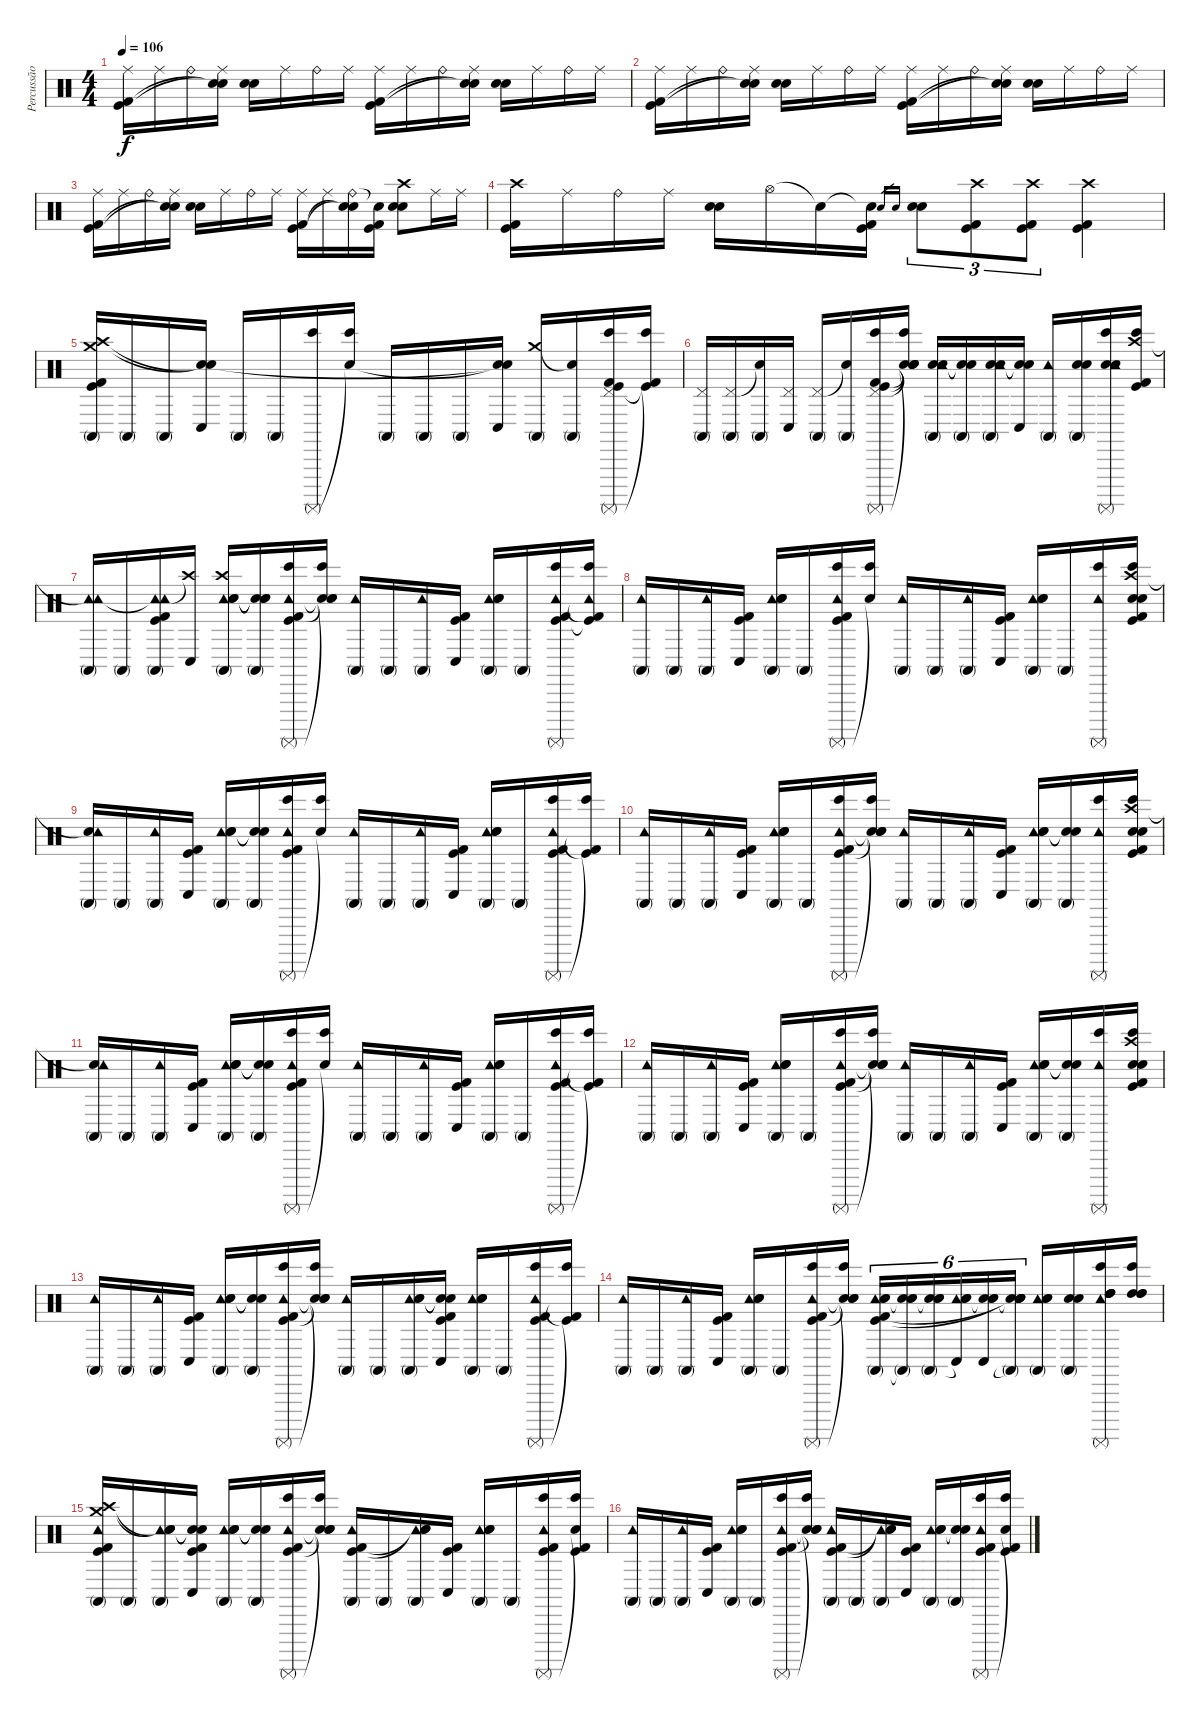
\track ("Percussão" "Percussão") {instrument percussion}
\staff {score}
\articulation defaults
\ts (4 4)
\tempo 106
\clef neutral
\ks c
("Ride (middle)" "Kick (hit)" "Kick (hit) 2").16{dy f} "Ride (middle)".16 "Ride (bell)".16 ("Ride (middle)" "Snare (hit)"{t} "Snare (hit)"{t}).16 ("Electric Snare (hit)" "Snare (hit) 2").16 "Ride (middle)".16 "Ride (bell)".16 "Ride (middle)".16 ("Ride (middle)" "Kick (hit)" "Kick (hit) 2").16 "Ride (middle)".16 "Ride (bell)".16 ("Ride (middle)" "Snare (hit)"{t} "Snare (hit)"{t}).16 ("Electric Snare (hit)" "Snare (hit) 2").16 "Ride (middle)".16 "Ride (bell)".16 "Ride (middle)".16 |
("Ride (middle)" "Kick (hit)" "Kick (hit) 2").16 "Ride (middle)".16 "Ride (bell)".16 ("Ride (middle)" "Snare (hit)"{t} "Snare (hit)"{t}).16 ("Electric Snare (hit)" "Snare (hit) 2").16 "Ride (middle)".16 "Ride (bell)".16 "Ride (middle)".16 ("Ride (middle)" "Kick (hit)" "Kick (hit) 2").16 "Ride (middle)".16 "Ride (bell)".16 ("Ride (middle)" "Snare (hit)"{t} "Snare (hit)"{t}).16 ("Electric Snare (hit)" "Snare (hit) 2").16 "Ride (middle)".16 "Ride (bell)".16 "Ride (middle)".16 |
("Ride (middle)" "Kick (hit) 2" "Kick (hit)").16 "Ride (middle)".16 "Ride (bell)".16 ("Ride (middle)" "Snare (hit)"{t} "Snare (hit)"{t}).16 ("Electric Snare (hit)" "Snare (hit) 2").16 "Ride (middle)".16 "Ride (bell)".16 "Ride (middle)".16 ("Ride (middle)" "Kick (hit) 2" "Kick (hit)").16 "Ride (middle)".16 ("Ride (bell)" "Snare (hit)"{t} "Snare (hit)"{t}).16 ("Snare (hit)"{t} "Kick (hit)" "Kick (hit) 2").16 ("Crash high (hit)" "Electric Snare (hit)" "Snare (hit) 2").8 "Ride (middle)".16 "Ride (middle)".16 |
("Crash high (hit)" "Kick (hit) 2" "Kick (hit)").16 "Ride (middle)".16 "Ride (bell)".16 "Ride (middle)".16 ("Electric Snare (hit)" "Snare (hit) 2").16 "Hi-Hat (open)".16 "Snare (hit)"{t}.16 ("Snare (hit)"{t} "Kick (hit)" "Kick (hit) 2").16 "Electric Snare (hit)".16{gr} "Snare (hit) 2".16{gr} ("Electric Snare (hit)" "Snare (hit) 2").8{tu (3 2)} ("Crash high (hit)" "Kick (hit)" "Kick (hit) 2").8{tu (3 2)} ("Crash high (hit)" "Kick (hit)" "Kick (hit) 2").8{tu (3 2)} ("Crash high (hit)" "Kick (hit)" "Kick (hit) 2").4 |
("Conga high (mute)" "Crash medium (hit)" "Crash high (hit)" "Kick (hit)" "Kick (hit) 2").16 "Conga high (mute)".16 "Conga high (mute)".16 ("Conga low (hit)" "Snare (hit)"{t} "Snare (hit)"{t}).16 "Conga high (mute)".16 "Conga high (mute)".16 ("Bongo High (hit)" "Surdo (mute)").16 ("Bongo High (hit)" "Snare (hit)"{t}).16 "Conga high (mute)".16 "Conga high (mute)".16 "Conga high (mute)".16 ("Conga low (hit)" "Snare (hit)"{t} "Snare (hit)"{t}).16 ("Conga high (mute)" "Crash medium (hit)").16 ("Conga high (mute)" "Snare (hit)"{t}).16 ("Bongo High (hit)" "Surdo (mute)" "Pedal Hi-Hat (hit)" "Kick (hit)" "Kick (hit) 2").16 ("Bongo High (hit)" "Kick (hit) 2"{t} "Kick (hit)"{t}).16 |
("Conga high (mute)" "Pedal Hi-Hat (hit)").16 ("Conga high (mute)" "Pedal Hi-Hat (hit)").16 ("Conga high (mute)" "Snare (hit)"{t}).16 ("Conga low (hit)" "Pedal Hi-Hat (hit)").16 ("Conga high (mute)" "Pedal Hi-Hat (hit)").16 ("Conga high (mute)" "Snare (hit)"{t}).16 ("Bongo High (hit)" "Surdo (mute)" "Pedal Hi-Hat (hit)" "Kick (hit) 2" "Kick (hit)").16 ("Bongo High (hit)" "Snare (hit)"{t} "Snare (hit)"{t} "Snare (hit)"{t} "Snare (hit)"{t}).16 ("Conga high (mute)" "Electric Snare (hit)" "Snare (hit) 2" "Tambourine (hit)").16 ("Conga high (mute)" "Snare (hit)"{t} "Snare (hit)"{t}).16 ("Conga high (mute)" "Electric Snare (hit)" "Snare (hit) 2" "Tambourine (hit)").16 ("Conga low (hit)" "Snare (hit)"{t} "Snare (hit)"{t}).16 ("Conga high (mute)" "Tambourine (hit)").16 ("Conga high (mute)" "Electric Snare (hit)" "Snare (hit) 2").16 ("Bongo High (hit)" "Surdo (mute)" "Snare (hit) 2" "Electric Snare (hit)" "Tambourine (hit)").16 ("Bongo High (hit)" "Crash high (hit)" "Kick (hit)" "Kick (hit) 2").16 |
("Conga high (mute)" "Tambourine (hit)"{t} "Tambourine (hit)").16 "Conga high (mute)".16 ("Conga high (mute)" "Tambourine (hit)"{t} "Tambourine (hit)" "Kick (hit)" "Kick (hit) 2").16 ("Conga low (hit)" "Crash high (hit)"{t}).16 ("Conga high (mute)" "Tambourine (hit)" "Electric Snare (hit)" "Snare (hit) 2" "Crash high (hit)").16 ("Conga high (mute)" "Snare (hit)"{t} "Snare (hit)"{t} "Snare (hit)"{t}).16 ("Bongo High (hit)" "Surdo (mute)" "Tambourine (hit)" "Kick (hit) 2" "Kick (hit)").16 ("Bongo High (hit)" "Snare (hit)"{t} "Snare (hit)"{t} "Snare (hit)"{t}).16 ("Conga high (mute)" "Tambourine (hit)").16 "Conga high (mute)".16 ("Conga high (mute)" "Tambourine (hit)").16 ("Conga low (hit)" "Kick (hit)" "Kick (hit) 2").16 ("Conga high (mute)" "Tambourine (hit)" "Electric Snare (hit)" "Snare (hit) 2").16 "Conga high (mute)".16 ("Bongo High (hit)" "Surdo (mute)" "Tambourine (hit)" "Kick (hit)" "Kick (hit) 2").16 ("Bongo High (hit)" "Tambourine (hit)" "Kick (hit) 2"{t} "Kick (hit)"{t}).16 |
("Conga high (mute)" "Tambourine (hit)").16 "Conga high (mute)".16 ("Conga high (mute)" "Tambourine (hit)").16 ("Conga low (hit)" "Kick (hit)" "Kick (hit) 2").16 ("Conga high (mute)" "Tambourine (hit)" "Electric Snare (hit)" "Snare (hit) 2").16 "Conga high (mute)".16 ("Bongo High (hit)" "Surdo (mute)" "Tambourine (hit)" "Kick (hit)" "Kick (hit) 2").16 ("Bongo High (hit)" "Snare (hit)"{t}).16 ("Conga high (mute)" "Tambourine (hit)").16 "Conga high (mute)".16 ("Conga high (mute)" "Tambourine (hit)").16 ("Conga low (hit)" "Kick (hit)" "Kick (hit) 2").16 ("Conga high (mute)" "Tambourine (hit)" "Electric Snare (hit)" "Snare (hit) 2").16 "Conga high (mute)".16 ("Bongo High (hit)" "Surdo (mute)" "Tambourine (hit)").16 ("Bongo High (hit)" "Crash high (hit)" "Electric Snare (hit)" "Snare (hit) 2" "Kick (hit)" "Kick (hit) 2").16 |
("Conga high (mute)" "Snare (hit)"{t} "Tambourine (hit)").16 "Conga high (mute)".16 ("Conga high (mute)" "Tambourine (hit)").16 ("Conga low (hit)" "Kick (hit)" "Kick (hit) 2").16 ("Conga high (mute)" "Tambourine (hit)" "Electric Snare (hit)" "Snare (hit) 2").16 ("Conga high (mute)" "Snare (hit)"{t} "Snare (hit)"{t}).16 ("Bongo High (hit)" "Surdo (mute)" "Tambourine (hit)" "Kick (hit)" "Kick (hit) 2").16 ("Bongo High (hit)" "Snare (hit)"{t}).16 ("Conga high (mute)" "Tambourine (hit)").16 "Conga high (mute)".16 ("Conga high (mute)" "Tambourine (hit)").16 ("Conga low (hit)" "Kick (hit)" "Kick (hit) 2").16 ("Conga high (mute)" "Tambourine (hit)" "Electric Snare (hit)" "Snare (hit) 2").16 "Conga high (mute)".16 ("Bongo High (hit)" "Surdo (mute)" "Tambourine (hit)" "Kick (hit)" "Kick (hit) 2").16 ("Bongo High (hit)" "Kick (hit) 2"{t} "Kick (hit)"{t}).16 |
("Conga high (mute)" "Tambourine (hit)").16 "Conga high (mute)".16 ("Conga high (mute)" "Tambourine (hit)").16 ("Conga low (hit)" "Kick (hit)" "Kick (hit) 2").16 ("Conga high (mute)" "Tambourine (hit)" "Electric Snare (hit)" "Snare (hit) 2").16 "Conga high (mute)".16 ("Bongo High (hit)" "Surdo (mute)" "Tambourine (hit)" "Kick (hit)" "Kick (hit) 2").16 ("Bongo High (hit)" "Snare (hit)"{t} "Snare (hit)"{t} "Snare (hit)"{t}).16 ("Conga high (mute)" "Tambourine (hit)").16 "Conga high (mute)".16 ("Conga high (mute)" "Tambourine (hit)").16 ("Conga low (hit)" "Kick (hit)" "Kick (hit) 2").16 ("Conga high (mute)" "Tambourine (hit)" "Electric Snare (hit)" "Snare (hit) 2").16 ("Conga high (mute)" "Snare (hit)"{t} "Snare (hit)"{t}).16 ("Bongo High (hit)" "Surdo (mute)" "Tambourine (hit)").16 ("Bongo High (hit)" "Crash high (hit)" "Kick (hit)" "Kick (hit) 2" "Electric Snare (hit)" "Snare (hit) 2").16 |
("Conga high (mute)" "Snare (hit)"{t} "Tambourine (hit)").16 "Conga high (mute)".16 ("Conga high (mute)" "Tambourine (hit)").16 ("Conga low (hit)" "Kick (hit)" "Kick (hit) 2").16 ("Conga high (mute)" "Tambourine (hit)" "Electric Snare (hit)" "Snare (hit) 2").16 ("Conga high (mute)" "Snare (hit)"{t} "Snare (hit)"{t}).16 ("Bongo High (hit)" "Surdo (mute)" "Tambourine (hit)" "Kick (hit)" "Kick (hit) 2").16 ("Bongo High (hit)" "Snare (hit)"{t}).16 ("Conga high (mute)" "Tambourine (hit)").16 "Conga high (mute)".16 ("Conga high (mute)" "Tambourine (hit)").16 ("Conga low (hit)" "Kick (hit)" "Kick (hit) 2").16 ("Conga high (mute)" "Tambourine (hit)" "Electric Snare (hit)" "Snare (hit) 2").16 "Conga high (mute)".16 ("Bongo High (hit)" "Surdo (mute)" "Tambourine (hit)" "Kick (hit)" "Kick (hit) 2").16 ("Bongo High (hit)" "Kick (hit) 2"{t} "Kick (hit)"{t}).16 |
("Conga high (mute)" "Tambourine (hit)").16 "Conga high (mute)".16 ("Conga high (mute)" "Tambourine (hit)").16 ("Conga low (hit)" "Kick (hit)" "Kick (hit) 2").16 ("Conga high (mute)" "Tambourine (hit)" "Electric Snare (hit)" "Snare (hit) 2").16 "Conga high (mute)".16 ("Bongo High (hit)" "Surdo (mute)" "Tambourine (hit)" "Kick (hit)" "Kick (hit) 2").16 ("Bongo High (hit)" "Snare (hit)"{t} "Snare (hit)"{t} "Snare (hit)"{t}).16 ("Conga high (mute)" "Tambourine (hit)").16 "Conga high (mute)".16 ("Conga high (mute)" "Tambourine (hit)").16 ("Conga low (hit)" "Kick (hit)" "Kick (hit) 2").16 ("Conga high (mute)" "Tambourine (hit)" "Electric Snare (hit)" "Snare (hit) 2").16 ("Conga high (mute)" "Snare (hit)"{t} "Snare (hit)"{t}).16 ("Bongo High (hit)" "Surdo (mute)" "Tambourine (hit)").16 ("Bongo High (hit)" "Crash high (hit)" "Kick (hit)" "Kick (hit) 2" "Electric Snare (hit)" "Snare (hit) 2").16 |
("Conga high (mute)" "Tambourine (hit)").16 "Conga high (mute)".16 ("Conga high (mute)" "Tambourine (hit)").16 ("Conga low (hit)" "Kick (hit)" "Kick (hit) 2").16 ("Conga high (mute)" "Tambourine (hit)" "Electric Snare (hit)" "Snare (hit) 2").16 ("Conga high (mute)" "Snare (hit)"{t} "Snare (hit)"{t}).16 ("Bongo High (hit)" "Surdo (mute)" "Tambourine (hit)" "Kick (hit)" "Kick (hit) 2").16 ("Bongo High (hit)" "Snare (hit)"{t} "Snare (hit)"{t} "Snare (hit)"{t}).16 ("Conga high (mute)" "Tambourine (hit)").16 "Conga high (mute)".16 ("Conga high (mute)" "Tambourine (hit)" "Electric Snare (hit)" "Snare (hit) 2").16 ("Conga low (hit)" "Snare (hit)"{t} "Snare (hit)"{t} "Kick (hit)" "Kick (hit) 2").16 ("Conga high (mute)" "Tambourine (hit)" "Electric Snare (hit)" "Snare (hit) 2").16 "Conga high (mute)".16 ("Bongo High (hit)" "Surdo (mute)" "Tambourine (hit)" "Kick (hit)" "Kick (hit) 2").16 ("Bongo High (hit)" "Kick (hit) 2"{t} "Kick (hit)"{t}).16 |
("Conga high (mute)" "Tambourine (hit)").16 "Conga high (mute)".16 ("Conga high (mute)" "Tambourine (hit)").16 ("Conga low (hit)" "Kick (hit) 2" "Kick (hit)").16 ("Conga high (mute)" "Tambourine (hit)" "Electric Snare (hit)" "Snare (hit) 2").16 "Conga high (mute)".16 ("Bongo High (hit)" "Surdo (mute)" "Tambourine (hit)" "Kick (hit)" "Kick (hit) 2").16 ("Bongo High (hit)" "Snare (hit)"{t} "Snare (hit)"{t} "Snare (hit)"{t}).16 ("Conga high (mute)" "Tambourine (hit)" "Electric Snare (hit)" "Snare (hit) 2" "Kick (hit)" "Kick (hit) 2").16{tu (6 4)} ("Conga high (mute)"{t} "Snare (hit)"{t} "Electric Snare (hit)" "Snare (hit) 2").16{tu (6 4)} ("Conga high (mute)" "Snare (hit)"{t} "Electric Snare (hit)" "Snare (hit) 2").16{tu (6 4)} ("Conga low (hit)"{t} "Tambourine (hit)" "Electric Snare (hit)" "Snare (hit) 2").16{tu (6 4)} ("Conga low (hit)" "Snare (hit)"{t} "Electric Snare (hit)" "Snare (hit) 2").16{tu (6 4)} ("Conga high (mute)"{t} "Snare (hit)"{t} "Electric Snare (hit)" "Snare (hit) 2" "Snare (hit)"{t} "Snare (hit)"{t}).16{tu (6 4)} ("Conga high (mute)" "Tambourine (hit)" "Electric Snare (hit)" "Snare (hit) 2").16 ("Conga high (mute)" "Electric Snare (hit)" "Snare (hit) 2").16 ("Bongo High (hit)" "Surdo (mute)" "Tambourine (hit)" "High Tom (hit)" "High Tom (hit)" "High Tom (hit)").16 ("Bongo High (hit)" "High Tom (hit)" "High Tom (hit)" "High Tom (hit)").16 |
("Conga high (mute)" "Tambourine (hit)" "Crash high (hit)" "Crash medium (hit)" "Kick (hit)" "Kick (hit) 2").16 "Conga high (mute)".16 ("Conga high (mute)" "Tambourine (hit)" "Snare (hit)"{t} "Snare (hit)"{t}).16 ("Conga low (hit)" "Snare (hit)"{t} "Snare (hit)"{t} "Kick (hit) 2" "Kick (hit)").16 ("Conga high (mute)" "Tambourine (hit)" "Electric Snare (hit)" "Snare (hit) 2").16 ("Conga high (mute)" "Snare (hit)"{t} "Snare (hit)"{t}).16 ("Bongo High (hit)" "Surdo (mute)" "Tambourine (hit)" "Kick (hit)" "Kick (hit) 2").16 ("Bongo High (hit)" "Snare (hit)"{t} "Snare (hit)"{t} "Snare (hit)"{t}).16 ("Conga high (mute)" "Tambourine (hit)" "Kick (hit)" "Kick (hit) 2").16 "Conga high (mute)".16 ("Conga high (mute)" "Tambourine (hit)" "Snare (hit)"{t} "Snare (hit)"{t}).16 ("Conga low (hit)" "Kick (hit)" "Kick (hit) 2").16 ("Conga high (mute)" "Tambourine (hit)" "Electric Snare (hit)" "Snare (hit) 2").16 "Conga high (mute)".16 ("Bongo High (hit)" "Surdo (mute)" "Tambourine (hit)" "Kick (hit)" "Kick (hit) 2").16 ("Bongo High (hit)" "Snare (hit)"{t} "Kick (hit)" "Kick (hit) 2").16 |
("Conga high (mute)" "Tambourine (hit)").16 "Conga high (mute)".16 ("Conga high (mute)" "Tambourine (hit)").16 ("Conga low (hit)" "Kick (hit)" "Kick (hit) 2").16 ("Conga high (mute)" "Tambourine (hit)" "Electric Snare (hit)" "Snare (hit) 2").16 "Conga high (mute)".16 ("Bongo High (hit)" "Surdo (mute)" "Tambourine (hit)" "Kick (hit) 2" "Kick (hit)").16 ("Bongo High (hit)" "Snare (hit)"{t} "Snare (hit)"{t} "Snare (hit)"{t}).16 ("Conga high (mute)" "Tambourine (hit)" "Kick (hit) 2" "Kick (hit)").16 "Conga high (mute)".16 ("Conga high (mute)" "Tambourine (hit)" "Snare (hit)"{t} "Snare (hit)"{t}).16 ("Conga low (hit)" "Kick (hit)" "Kick (hit) 2").16 ("Conga high (mute)" "Tambourine (hit)" "Electric Snare (hit)" "Snare (hit) 2").16 ("Conga high (mute)" "Snare (hit)"{t} "Snare (hit)"{t}).16 ("Bongo High (hit)" "Surdo (mute)" "Tambourine (hit)" "Kick (hit)" "Kick (hit) 2").16 ("Bongo High (hit)" "Snare (hit)"{t} "Kick (hit)" "Kick (hit) 2").16
